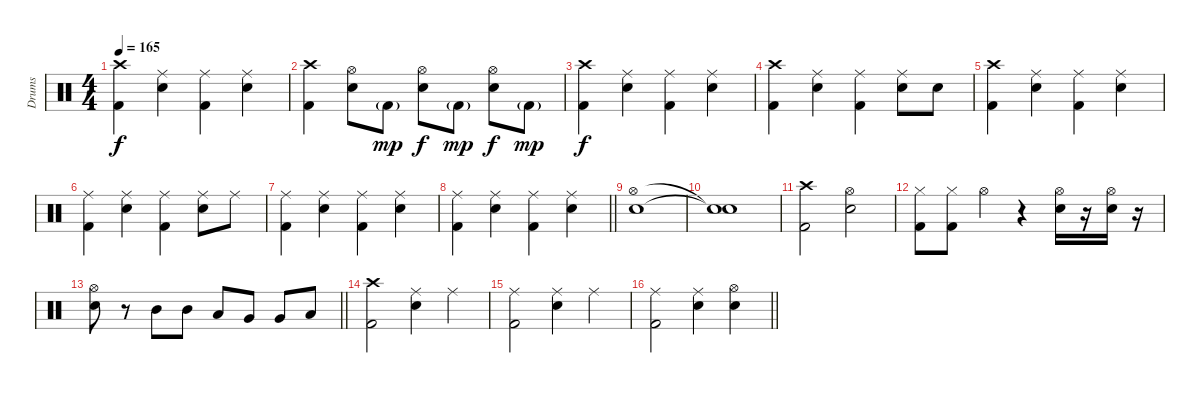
\track ("Drums" "Drums") {instrument percussion}
\staff {score}
\articulation defaults
\ts (4 4)
\section ("" "")
\tempo 165
\clef neutral
\ks c
("Crash high (hit)" "Kick (hit) 2").4{dy f} ("Ride (middle)" "Snare (hit) 2").4 ("Ride (middle)" "Kick (hit) 2").4 ("Ride (middle)" "Snare (hit) 2").4 |
("Kick (hit) 2" "Crash high (hit)").4 ("Snare (hit) 2" "Hi-Hat (open)").8 "Kick (hit) 2"{g}.8{dy mp} ("Snare (hit) 2" "Hi-Hat (open)").8{dy f} "Kick (hit) 2"{g}.8{dy mp} ("Hi-Hat (open)" "Snare (hit) 2").8{dy f} "Kick (hit) 2"{g}.8{dy mp} |
("Kick (hit) 2" "Crash high (hit)").4{dy f} ("Snare (hit) 2" "Ride (middle)").4 ("Kick (hit) 2" "Ride (middle)").4 ("Snare (hit) 2" "Ride (middle)").4 |
("Kick (hit) 2" "Crash high (hit)").4 ("Snare (hit) 2" "Ride (middle)").4 ("Kick (hit) 2" "Ride (middle)").4 ("Snare (hit) 2" "Ride (middle)").8 "Snare (hit) 2".8 |
("Kick (hit) 2" "Crash high (hit)").4 ("Snare (hit) 2" "Ride (middle)").4 ("Kick (hit) 2" "Ride (middle)").4 ("Snare (hit) 2" "Ride (middle)").4 |
("Kick (hit) 2" "Ride (middle)").4 ("Snare (hit) 2" "Ride (middle)").4 ("Kick (hit) 2" "Ride (middle)").4 ("Snare (hit) 2" "Ride (middle)").8 "Ride (middle)".8 |
("Kick (hit) 2" "Ride (middle)").4 ("Snare (hit) 2" "Ride (middle)").4 ("Kick (hit) 2" "Ride (middle)").4 ("Snare (hit) 2" "Ride (middle)").4 |
\barLineRight lightlight
("Kick (hit) 2" "Ride (middle)").4 ("Snare (hit) 2" "Ride (middle)").4 ("Kick (hit) 2" "Ride (middle)").4 ("Snare (hit) 2" "Ride (middle)").4 |
\section ("" "")
("Snare (hit) 2" "Hi-Hat (open)").1 |
("Snare (hit)"{t} "Snare (hit)"{t}).1 |
("Kick (hit) 2" "Crash high (hit)").2 ("Snare (hit) 2" "Hi-Hat (open)").2 |
("Kick (hit) 2" "Hi-Hat (closed)").8 ("Kick (hit) 2" "Hi-Hat (closed)").8 "Hi-Hat (open)".4 r.4 ("Snare (hit) 2" "Hi-Hat (open)").16 r.16 ("Snare (hit) 2" "Hi-Hat (open)").16 r.16 |
\barLineRight lightlight
("Hi-Hat (open)" "Snare (hit) 2").8 r.8 "Mid Tom (hit)".8 "Mid Tom (hit)".8 "Low Tom (hit)".8 "Very Low Tom (hit)".8 "Very Low Tom (hit)".8 "Low Floor Tom (hit)".8 |
\section ("" "")
("Kick (hit) 2" "Crash high (hit)").2 ("Snare (hit) 2" "Ride (middle)").4 "Ride (middle)".4 |
("Kick (hit) 2" "Ride (middle)").2 ("Snare (hit) 2" "Ride (middle)").4 "Ride (middle)".4 |
\barLineRight lightlight
("Kick (hit) 2" "Ride (middle)").2 ("Snare (hit) 2" "Ride (middle)").4 ("Snare (hit) 2" "Hi-Hat (open)").4
